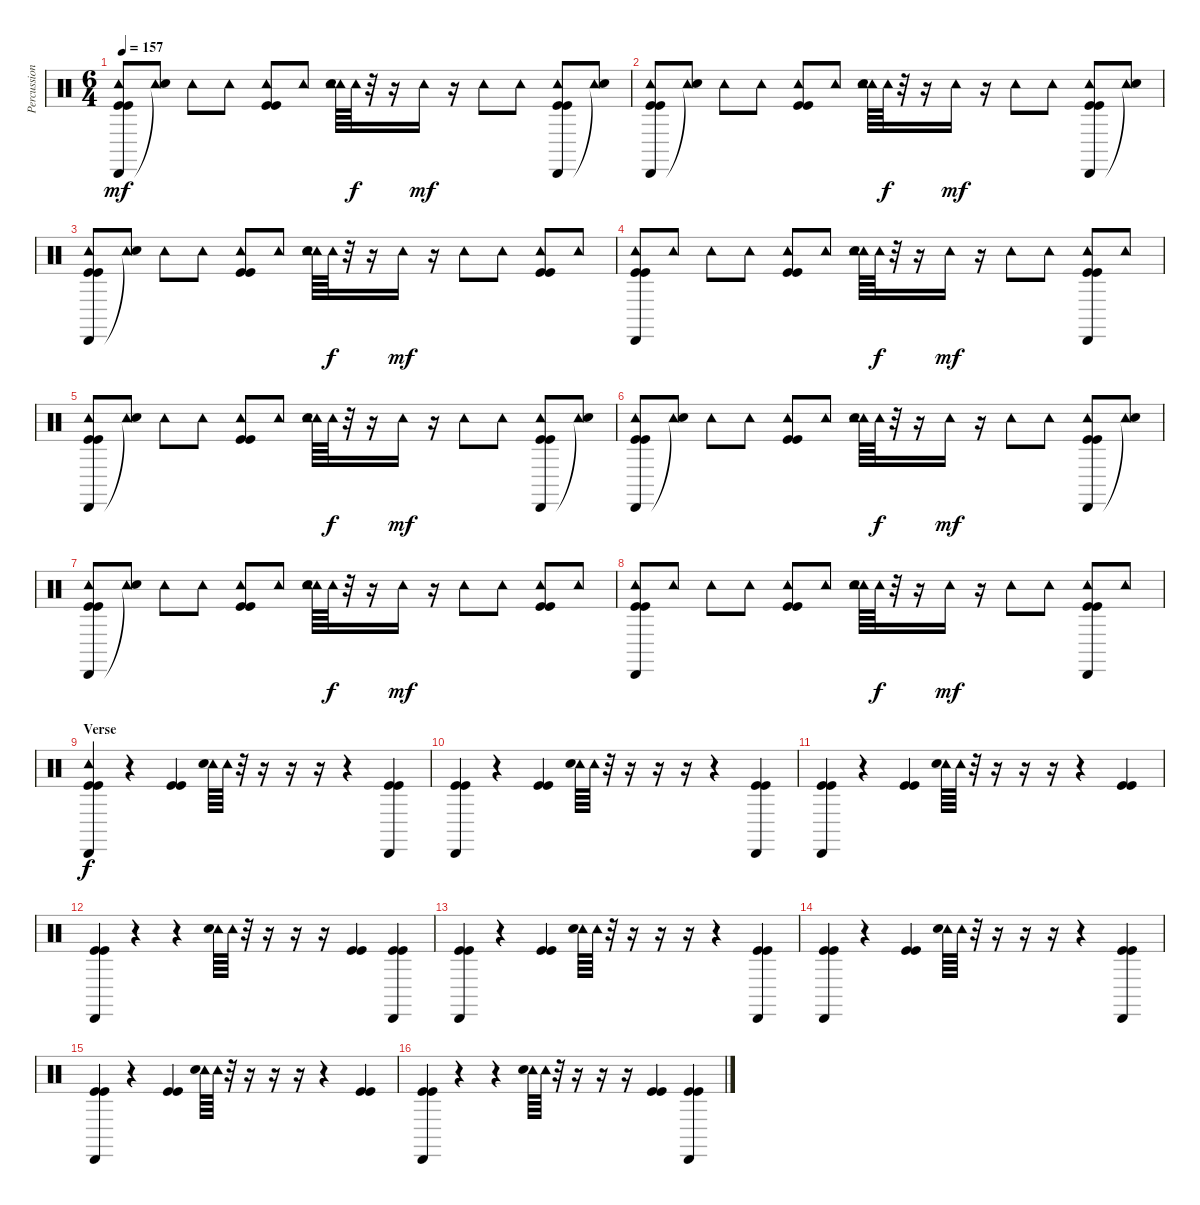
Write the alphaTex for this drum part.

\track ("Percussions" "Percussion") {instrument percussion}
\staff {score}
\articulation defaults
\ts (6 4)
\tempo 157
\clef neutral
\ks c
("Tambourine (hit)" "Cabasa (hit)" "Kick (hit)" "Kick (hit)").8{dy mf} ("Tambourine (hit)" "Snare (hit)"{t}).8 "Tambourine (hit)".8 "Tambourine (hit)".8 ("Tambourine (hit)" "Kick (hit)" "Kick (hit)").8 "Tambourine (hit)".8 ("Tambourine (hit)" "Tambourine (hit)" "Snare (hit) 2").64 "Tambourine (hit)".64{dy f} r.32 r.16 "Tambourine (hit)".16{dy mf} r.16 "Tambourine (hit)".8 "Tambourine (hit)".8 ("Tambourine (hit)" "Cabasa (hit)" "Kick (hit)" "Kick (hit)").8 ("Tambourine (hit)" "Snare (hit)"{t}).8 |
("Tambourine (hit)" "Cabasa (hit)" "Kick (hit)" "Kick (hit)").8 ("Tambourine (hit)" "Snare (hit)"{t}).8 "Tambourine (hit)".8 "Tambourine (hit)".8 ("Tambourine (hit)" "Kick (hit)" "Kick (hit)").8 "Tambourine (hit)".8 ("Tambourine (hit)" "Tambourine (hit)" "Snare (hit) 2").64 "Tambourine (hit)".64{dy f} r.32 r.16 "Tambourine (hit)".16{dy mf} r.16 "Tambourine (hit)".8 "Tambourine (hit)".8 ("Tambourine (hit)" "Cabasa (hit)" "Kick (hit)" "Kick (hit)").8 ("Tambourine (hit)" "Snare (hit)"{t}).8 |
("Tambourine (hit)" "Cabasa (hit)" "Kick (hit)" "Kick (hit)").8 ("Tambourine (hit)" "Snare (hit)"{t}).8 "Tambourine (hit)".8 "Tambourine (hit)".8 ("Tambourine (hit)" "Kick (hit)" "Kick (hit)").8 "Tambourine (hit)".8 ("Tambourine (hit)" "Tambourine (hit)" "Snare (hit) 2").64 "Tambourine (hit)".64{dy f} r.32 r.16 "Tambourine (hit)".16{dy mf} r.16 "Tambourine (hit)".8 "Tambourine (hit)".8 ("Tambourine (hit)" "Kick (hit)" "Kick (hit)").8 "Tambourine (hit)".8 |
("Tambourine (hit)" "Cabasa (hit)" "Kick (hit)" "Kick (hit)").8 "Tambourine (hit)".8 "Tambourine (hit)".8 "Tambourine (hit)".8 ("Tambourine (hit)" "Kick (hit)" "Kick (hit)").8 "Tambourine (hit)".8 ("Tambourine (hit)" "Tambourine (hit)" "Snare (hit) 2").64 "Tambourine (hit)".64{dy f} r.32 r.16 "Tambourine (hit)".16{dy mf} r.16 "Tambourine (hit)".8 "Tambourine (hit)".8 ("Tambourine (hit)" "Cabasa (hit)" "Kick (hit)" "Kick (hit)").8 "Tambourine (hit)".8 |
("Tambourine (hit)" "Cabasa (hit)" "Kick (hit)" "Kick (hit)").8 ("Tambourine (hit)" "Snare (hit)"{t}).8 "Tambourine (hit)".8 "Tambourine (hit)".8 ("Tambourine (hit)" "Kick (hit)" "Kick (hit)").8 "Tambourine (hit)".8 ("Tambourine (hit)" "Tambourine (hit)" "Snare (hit) 2").64 "Tambourine (hit)".64{dy f} r.32 r.16 "Tambourine (hit)".16{dy mf} r.16 "Tambourine (hit)".8 "Tambourine (hit)".8 ("Tambourine (hit)" "Cabasa (hit)" "Kick (hit)" "Kick (hit)").8 ("Tambourine (hit)" "Snare (hit)"{t}).8 |
("Tambourine (hit)" "Cabasa (hit)" "Kick (hit)" "Kick (hit)").8 ("Tambourine (hit)" "Snare (hit)"{t}).8 "Tambourine (hit)".8 "Tambourine (hit)".8 ("Tambourine (hit)" "Kick (hit)" "Kick (hit)").8 "Tambourine (hit)".8 ("Tambourine (hit)" "Tambourine (hit)" "Snare (hit) 2").64 "Tambourine (hit)".64{dy f} r.32 r.16 "Tambourine (hit)".16{dy mf} r.16 "Tambourine (hit)".8 "Tambourine (hit)".8 ("Tambourine (hit)" "Cabasa (hit)" "Kick (hit)" "Kick (hit)").8 ("Tambourine (hit)" "Snare (hit)"{t}).8 |
("Tambourine (hit)" "Cabasa (hit)" "Kick (hit)" "Kick (hit)").8 ("Tambourine (hit)" "Snare (hit)"{t}).8 "Tambourine (hit)".8 "Tambourine (hit)".8 ("Tambourine (hit)" "Kick (hit)" "Kick (hit)").8 "Tambourine (hit)".8 ("Tambourine (hit)" "Tambourine (hit)" "Snare (hit) 2").64 "Tambourine (hit)".64{dy f} r.32 r.16 "Tambourine (hit)".16{dy mf} r.16 "Tambourine (hit)".8 "Tambourine (hit)".8 ("Tambourine (hit)" "Kick (hit)" "Kick (hit)").8 "Tambourine (hit)".8 |
("Tambourine (hit)" "Cabasa (hit)" "Kick (hit)" "Kick (hit)").8 "Tambourine (hit)".8 "Tambourine (hit)".8 "Tambourine (hit)".8 ("Tambourine (hit)" "Kick (hit)" "Kick (hit)").8 "Tambourine (hit)".8 ("Tambourine (hit)" "Tambourine (hit)" "Snare (hit) 2").64 "Tambourine (hit)".64{dy f} r.32 r.16 "Tambourine (hit)".16{dy mf} r.16 "Tambourine (hit)".8 "Tambourine (hit)".8 ("Tambourine (hit)" "Cabasa (hit)" "Kick (hit)" "Kick (hit)").8 "Tambourine (hit)".8 |
\section ("" "Verse")
("Tambourine (hit)" "Cabasa (hit)" "Kick (hit)" "Kick (hit)").4{dy f} r.4 ("Kick (hit)" "Kick (hit)").4 ("Tambourine (hit)" "Snare (hit) 2").64 "Tambourine (hit)".64 r.32 r.16 r.16 r.16 r.4 ("Cabasa (hit)" "Kick (hit)" "Kick (hit)").4 |
("Cabasa (hit)" "Kick (hit)" "Kick (hit)").4 r.4 ("Kick (hit)" "Kick (hit)").4 ("Tambourine (hit)" "Snare (hit) 2").64 "Tambourine (hit)".64 r.32 r.16 r.16 r.16 r.4 ("Cabasa (hit)" "Kick (hit)" "Kick (hit)").4 |
("Cabasa (hit)" "Kick (hit)" "Kick (hit)").4 r.4 ("Kick (hit)" "Kick (hit)").4 ("Tambourine (hit)" "Snare (hit) 2").64 "Tambourine (hit)".64 r.32 r.16 r.16 r.16 r.4 ("Kick (hit)" "Kick (hit)").4 |
("Cabasa (hit)" "Kick (hit)" "Kick (hit)").4 r.4 r.4 ("Tambourine (hit)" "Snare (hit) 2").64 "Tambourine (hit)".64 r.32 r.16 r.16 r.16 ("Kick (hit)" "Kick (hit)").4 ("Cabasa (hit)" "Kick (hit)" "Kick (hit)").4 |
("Cabasa (hit)" "Kick (hit)" "Kick (hit)").4 r.4 ("Kick (hit)" "Kick (hit)").4 ("Tambourine (hit)" "Snare (hit) 2").64 "Tambourine (hit)".64 r.32 r.16 r.16 r.16 r.4 ("Cabasa (hit)" "Kick (hit)" "Kick (hit)").4 |
("Cabasa (hit)" "Kick (hit)" "Kick (hit)").4 r.4 ("Kick (hit)" "Kick (hit)").4 ("Tambourine (hit)" "Snare (hit) 2").64 "Tambourine (hit)".64 r.32 r.16 r.16 r.16 r.4 ("Cabasa (hit)" "Kick (hit)" "Kick (hit)").4 |
("Cabasa (hit)" "Kick (hit)" "Kick (hit)").4 r.4 ("Kick (hit)" "Kick (hit)").4 ("Tambourine (hit)" "Snare (hit) 2").64 "Tambourine (hit)".64 r.32 r.16 r.16 r.16 r.4 ("Kick (hit)" "Kick (hit)").4 |
("Cabasa (hit)" "Kick (hit)" "Kick (hit)").4 r.4 r.4 ("Tambourine (hit)" "Snare (hit) 2").64 "Tambourine (hit)".64 r.32 r.16 r.16 r.16 ("Kick (hit)" "Kick (hit)").4 ("Cabasa (hit)" "Kick (hit)" "Kick (hit)").4
